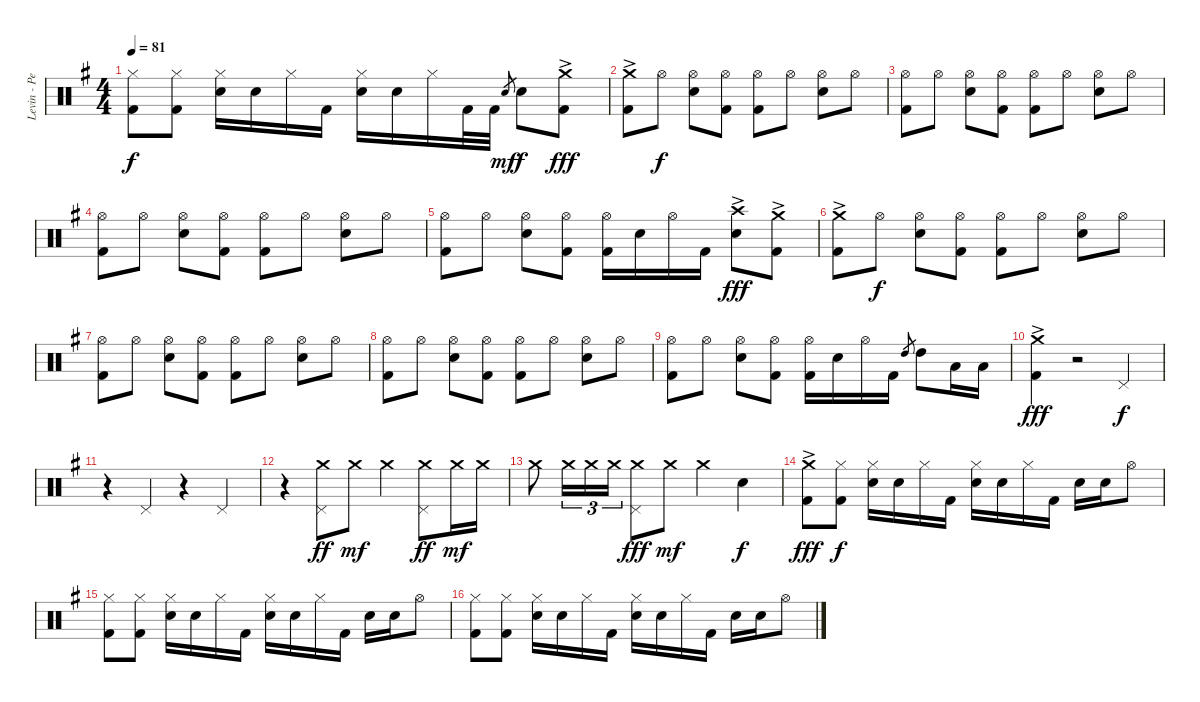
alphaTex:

\track ("Levin - Percussion" "Levin - Pe") {instrument percussion}
\staff {score}
\articulation defaults
\ts (4 4)
\tempo 81
\clef neutral
\ks g
("Hi-Hat (closed)" "Kick (hit) 2").8{dy f} ("Hi-Hat (closed)" "Kick (hit) 2").8 ("Hi-Hat (closed)" "Electric Snare (hit)").16 "Electric Snare (hit)".16 "Hi-Hat (closed)".16 "Kick (hit) 2".16 ("Hi-Hat (closed)" "Electric Snare (hit)").16 "Electric Snare (hit)".16 "Hi-Hat (closed)".16 "Kick (hit) 2".32 "Kick (hit) 2".32 "Electric Snare (hit)".8{gr dy mf} "Electric Snare (hit)".8{dy f} ("Crash medium (hit)"{ac} "Kick (hit) 2").8{dy fff} |
("Crash medium (hit)"{ac} "Kick (hit) 2"{ac}).8 "Hi-Hat (open)".8{dy f} ("Hi-Hat (open)" "Electric Snare (hit)").8 ("Hi-Hat (open)" "Kick (hit) 2").8 ("Hi-Hat (open)" "Kick (hit) 2").8 "Hi-Hat (open)".8 ("Hi-Hat (open)" "Electric Snare (hit)").8 "Hi-Hat (open)".8 |
("Hi-Hat (open)" "Kick (hit) 2").8 "Hi-Hat (open)".8 ("Hi-Hat (open)" "Electric Snare (hit)").8 ("Hi-Hat (open)" "Kick (hit) 2").8 ("Hi-Hat (open)" "Kick (hit) 2").8 "Hi-Hat (open)".8 ("Hi-Hat (open)" "Electric Snare (hit)").8 "Hi-Hat (open)".8 |
("Hi-Hat (open)" "Kick (hit) 2").8 "Hi-Hat (open)".8 ("Hi-Hat (open)" "Electric Snare (hit)").8 ("Hi-Hat (open)" "Kick (hit) 2").8 ("Hi-Hat (open)" "Kick (hit) 2").8 "Hi-Hat (open)".8 ("Hi-Hat (open)" "Electric Snare (hit)").8 "Hi-Hat (open)".8 |
("Hi-Hat (open)" "Kick (hit) 2").8 "Hi-Hat (open)".8 ("Hi-Hat (open)" "Electric Snare (hit)").8 ("Hi-Hat (open)" "Kick (hit) 2").8 ("Hi-Hat (open)" "Kick (hit) 2").16 "Electric Snare (hit)".16 "Hi-Hat (open)".16 "Kick (hit) 2".16 ("Crash high (hit)"{ac} "Electric Snare (hit)").8{dy fff} ("Crash medium (hit)"{ac} "Kick (hit) 2"{ac}).8 |
("Crash medium (hit)"{ac} "Kick (hit) 2"{ac}).8 "Hi-Hat (open)".8{dy f} ("Hi-Hat (open)" "Electric Snare (hit)").8 ("Hi-Hat (open)" "Kick (hit) 2").8 ("Hi-Hat (open)" "Kick (hit) 2").8 "Hi-Hat (open)".8 ("Hi-Hat (open)" "Electric Snare (hit)").8 "Hi-Hat (open)".8 |
("Hi-Hat (open)" "Kick (hit) 2").8 "Hi-Hat (open)".8 ("Hi-Hat (open)" "Electric Snare (hit)").8 ("Hi-Hat (open)" "Kick (hit) 2").8 ("Hi-Hat (open)" "Kick (hit) 2").8 "Hi-Hat (open)".8 ("Hi-Hat (open)" "Electric Snare (hit)").8 "Hi-Hat (open)".8 |
("Hi-Hat (open)" "Kick (hit) 2").8 "Hi-Hat (open)".8 ("Hi-Hat (open)" "Electric Snare (hit)").8 ("Hi-Hat (open)" "Kick (hit) 2").8 ("Hi-Hat (open)" "Kick (hit) 2").8 "Hi-Hat (open)".8 ("Hi-Hat (open)" "Electric Snare (hit)").8 "Hi-Hat (open)".8 |
("Hi-Hat (open)" "Kick (hit) 2").8 "Hi-Hat (open)".8 ("Hi-Hat (open)" "Electric Snare (hit)").8 ("Hi-Hat (open)" "Kick (hit) 2").8 ("Hi-Hat (open)" "Kick (hit) 2").16 "Electric Snare (hit)".16 "Hi-Hat (open)".16 "Kick (hit) 2".16 "High Tom (hit)".8{gr} "High Tom (hit)".8 "Low Tom (hit)".16 "Low Tom (hit)".16 |
("Crash medium (hit)"{ac} "Kick (hit) 2").4{dy fff} r.2 "Pedal Hi-Hat (hit)".4{dy f} |
r.4 "Pedal Hi-Hat (hit)".4 r.4 "Pedal Hi-Hat (hit)".4 |
r.4 ("Crash medium (hit)" "Pedal Hi-Hat (hit)").8{dy ff} "Crash medium (hit)".8{dy mf} "Crash medium (hit)".4 ("Crash medium (hit)" "Pedal Hi-Hat (hit)").8{dy ff} "Crash medium (hit)".16{dy mf} "Crash medium (hit)".16 |
"Crash medium (hit)".8 "Crash medium (hit)".16{tu (3 2)} "Crash medium (hit)".16{tu (3 2)} "Crash medium (hit)".16{tu (3 2)} ("Crash medium (hit)" "Pedal Hi-Hat (hit)").8{dy fff} "Crash medium (hit)".8{dy mf} "Crash medium (hit)".4 "Electric Snare (hit)".4{dy f} |
("Crash medium (hit)"{ac} "Kick (hit) 2").8{dy fff} ("Hi-Hat (closed)" "Kick (hit) 2").8{dy f} ("Hi-Hat (closed)" "Electric Snare (hit)").16 "Electric Snare (hit)".16 "Hi-Hat (closed)".16 "Kick (hit) 2".16 ("Hi-Hat (closed)" "Electric Snare (hit)").16 "Electric Snare (hit)".16 "Hi-Hat (closed)".16 "Kick (hit) 2".16 "Electric Snare (hit)".16 "Electric Snare (hit)".16 "Hi-Hat (open)".8 |
("Hi-Hat (closed)" "Kick (hit) 2").8 ("Hi-Hat (closed)" "Kick (hit) 2").8 ("Hi-Hat (closed)" "Electric Snare (hit)").16 "Electric Snare (hit)".16 "Hi-Hat (closed)".16 "Kick (hit) 2".16 ("Hi-Hat (closed)" "Electric Snare (hit)").16 "Electric Snare (hit)".16 "Hi-Hat (closed)".16 "Kick (hit) 2".16 "Electric Snare (hit)".16 "Electric Snare (hit)".16 "Hi-Hat (open)".8 |
("Hi-Hat (closed)" "Kick (hit) 2").8 ("Hi-Hat (closed)" "Kick (hit) 2").8 ("Hi-Hat (closed)" "Electric Snare (hit)").16 "Electric Snare (hit)".16 "Hi-Hat (closed)".16 "Kick (hit) 2".16 ("Hi-Hat (closed)" "Electric Snare (hit)").16 "Electric Snare (hit)".16 "Hi-Hat (closed)".16 "Kick (hit) 2".16 "Electric Snare (hit)".16 "Electric Snare (hit)".16 "Hi-Hat (open)".8
